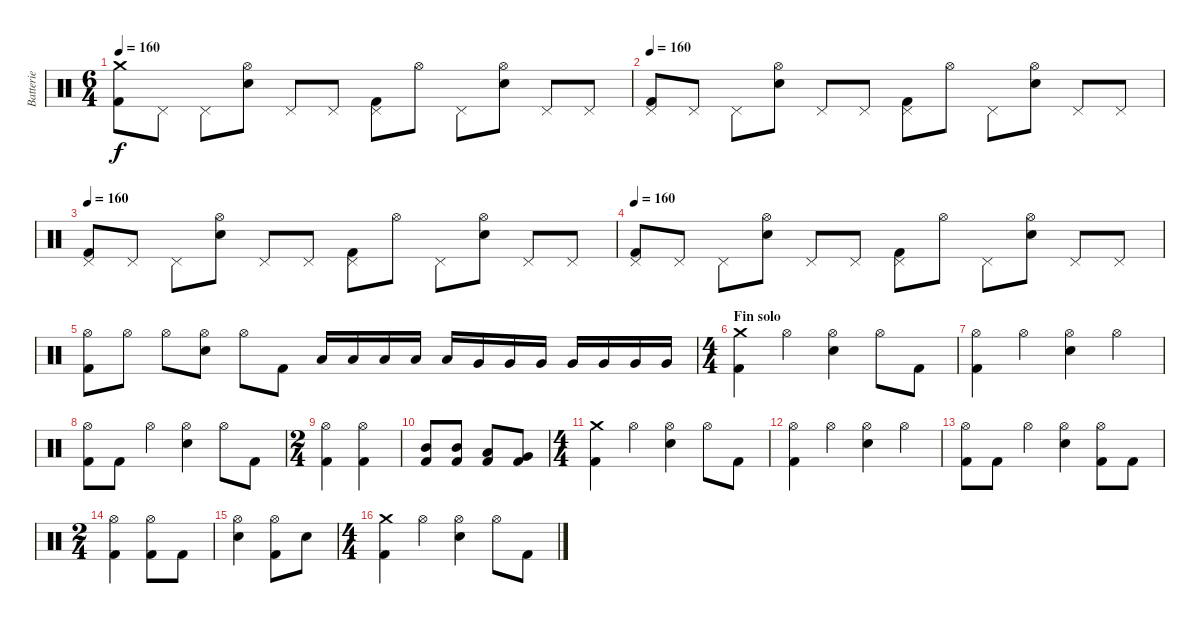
\track ("Batterie" "Batterie") {instrument percussion}
\staff {score}
\articulation defaults
\ts (6 4)
\tempo 160
\clef neutral
\ks c
("Crash medium (hit)" "Kick (hit) 2").8{dy f} "Pedal Hi-Hat (hit)".8 "Pedal Hi-Hat (hit)".8 ("Hi-Hat (open)" "Electric Snare (hit)").8 "Pedal Hi-Hat (hit)".8 "Pedal Hi-Hat (hit)".8 ("Pedal Hi-Hat (hit)" "Kick (hit) 2").8 "Hi-Hat (open)".8 "Pedal Hi-Hat (hit)".8 ("Hi-Hat (open)" "Electric Snare (hit)").8 "Pedal Hi-Hat (hit)".8 "Pedal Hi-Hat (hit)".8 |
\tempo 160
("Pedal Hi-Hat (hit)" "Kick (hit) 2").8 "Pedal Hi-Hat (hit)".8 "Pedal Hi-Hat (hit)".8 ("Hi-Hat (open)" "Electric Snare (hit)").8 "Pedal Hi-Hat (hit)".8 "Pedal Hi-Hat (hit)".8 ("Pedal Hi-Hat (hit)" "Kick (hit) 2").8 "Hi-Hat (open)".8 "Pedal Hi-Hat (hit)".8 ("Hi-Hat (open)" "Electric Snare (hit)").8 "Pedal Hi-Hat (hit)".8 "Pedal Hi-Hat (hit)".8 |
\tempo 160
("Pedal Hi-Hat (hit)" "Kick (hit) 2").8 "Pedal Hi-Hat (hit)".8 "Pedal Hi-Hat (hit)".8 ("Hi-Hat (open)" "Electric Snare (hit)").8 "Pedal Hi-Hat (hit)".8 "Pedal Hi-Hat (hit)".8 ("Pedal Hi-Hat (hit)" "Kick (hit) 2").8 "Hi-Hat (open)".8 "Pedal Hi-Hat (hit)".8 ("Hi-Hat (open)" "Electric Snare (hit)").8 "Pedal Hi-Hat (hit)".8 "Pedal Hi-Hat (hit)".8 |
\tempo 160
("Pedal Hi-Hat (hit)" "Kick (hit) 2").8 "Pedal Hi-Hat (hit)".8 "Pedal Hi-Hat (hit)".8 ("Hi-Hat (open)" "Electric Snare (hit)").8 "Pedal Hi-Hat (hit)".8 "Pedal Hi-Hat (hit)".8 ("Pedal Hi-Hat (hit)" "Kick (hit) 2").8 "Hi-Hat (open)".8 "Pedal Hi-Hat (hit)".8 ("Hi-Hat (open)" "Electric Snare (hit)").8 "Pedal Hi-Hat (hit)".8 "Pedal Hi-Hat (hit)".8 |
("Hi-Hat (open)" "Kick (hit) 2").8 "Hi-Hat (open)".8 "Hi-Hat (open)".8 ("Hi-Hat (open)" "Electric Snare (hit)").8 "Hi-Hat (open)".8 "Kick (hit) 2".8 "Low Tom (hit)".16 "Low Tom (hit)".16 "Low Tom (hit)".16 "Low Tom (hit)".16 "Low Tom (hit)".16 "Very Low Tom (hit)".16 "Very Low Tom (hit)".16 "Very Low Tom (hit)".16 "Very Low Tom (hit)".16 "Very Low Tom (hit)".16 "Very Low Tom (hit)".16 "Very Low Tom (hit)".16 |
\ts (4 4)
\section ("" "Fin solo")
("Crash medium (hit)" "Kick (hit) 2").4 "Hi-Hat (open)".4 ("Hi-Hat (open)" "Electric Snare (hit)").4 "Hi-Hat (open)".8 "Kick (hit) 2".8 |
("Hi-Hat (open)" "Kick (hit) 2").4 "Hi-Hat (open)".4 ("Hi-Hat (open)" "Electric Snare (hit)").4 "Hi-Hat (open)".4 |
("Hi-Hat (open)" "Kick (hit) 2").8 "Kick (hit) 2".8 "Hi-Hat (open)".4 ("Hi-Hat (open)" "Electric Snare (hit)").4 "Hi-Hat (open)".8 "Kick (hit) 2".8 |
\ts (2 4)
("Hi-Hat (open)" "Kick (hit) 2").4 ("Hi-Hat (open)" "Kick (hit) 2").4 |
("Mid Tom (hit)" "Kick (hit) 2").8 ("Mid Tom (hit)" "Kick (hit) 2").8 ("Low Tom (hit)" "Kick (hit) 2").8 ("Very Low Tom (hit)" "Kick (hit) 2").8 |
\ts (4 4)
("Crash medium (hit)" "Kick (hit) 2").4 "Hi-Hat (open)".4 ("Hi-Hat (open)" "Electric Snare (hit)").4 "Hi-Hat (open)".8 "Kick (hit) 2".8 |
("Hi-Hat (open)" "Kick (hit) 2").4 "Hi-Hat (open)".4 ("Hi-Hat (open)" "Electric Snare (hit)").4 "Hi-Hat (open)".4 |
("Hi-Hat (open)" "Kick (hit) 2").8 "Kick (hit) 2".8 "Hi-Hat (open)".4 ("Hi-Hat (open)" "Electric Snare (hit)").4 ("Hi-Hat (open)" "Kick (hit) 2").8 "Kick (hit) 2".8 |
\ts (2 4)
("Hi-Hat (open)" "Kick (hit) 2").4 ("Hi-Hat (open)" "Kick (hit) 2").8 "Kick (hit) 2".8 |
("Hi-Hat (open)" "Electric Snare (hit)").4 ("Hi-Hat (open)" "Kick (hit) 2").8 "Electric Snare (hit)".8 |
\ts (4 4)
("Crash medium (hit)" "Kick (hit) 2").4 "Hi-Hat (open)".4 ("Hi-Hat (open)" "Electric Snare (hit)").4 "Hi-Hat (open)".8 "Kick (hit) 2".8
